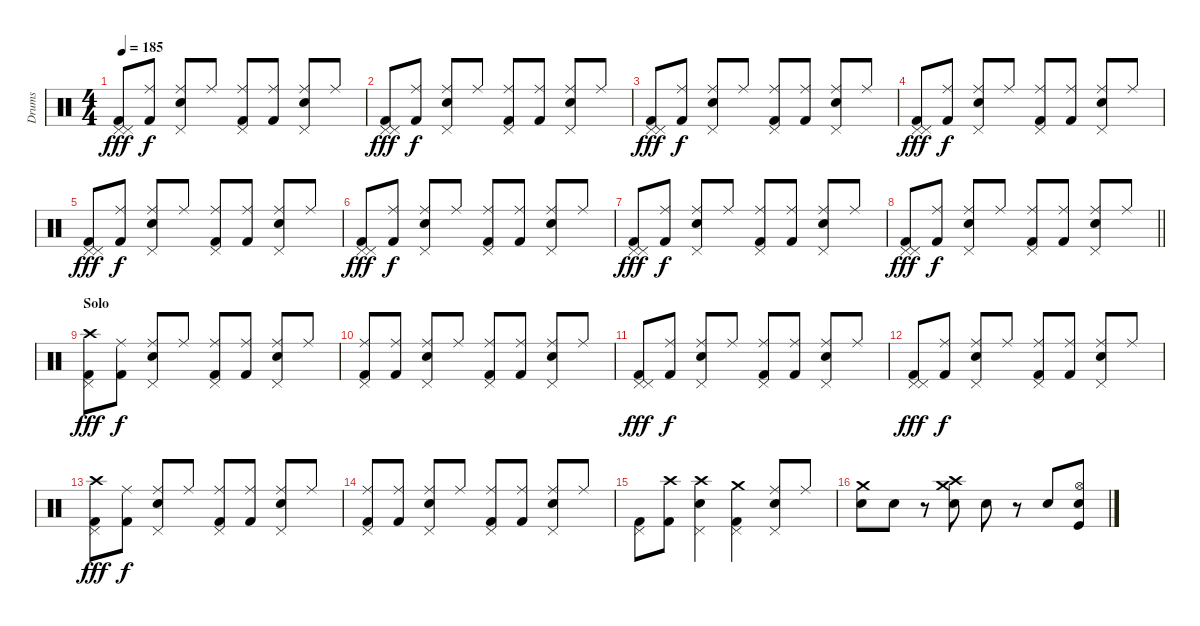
\track ("Drums" "Drums") {instrument percussion}
\staff {score}
\articulation defaults
\ts (4 4)
\tempo 185
\clef neutral
\ks c
("Pedal Hi-Hat (hit)" "Pedal Hi-Hat (hit)" "Kick (hit) 2").8{dy fff} ("Ride (middle)" "Kick (hit) 2").8{dy f} ("Pedal Hi-Hat (hit)" "Ride (middle)" "Snare (hit) 2").8 "Ride (middle)".8 ("Pedal Hi-Hat (hit)" "Ride (middle)" "Kick (hit) 2").8 ("Ride (middle)" "Kick (hit) 2").8 ("Pedal Hi-Hat (hit)" "Ride (middle)" "Snare (hit) 2").8 "Ride (middle)".8 |
("Pedal Hi-Hat (hit)" "Pedal Hi-Hat (hit)" "Kick (hit) 2").8{dy fff} ("Ride (middle)" "Kick (hit) 2").8{dy f} ("Pedal Hi-Hat (hit)" "Ride (middle)" "Snare (hit) 2").8 "Ride (middle)".8 ("Pedal Hi-Hat (hit)" "Ride (middle)" "Kick (hit) 2").8 ("Ride (middle)" "Kick (hit) 2").8 ("Pedal Hi-Hat (hit)" "Ride (middle)" "Snare (hit) 2").8 "Ride (middle)".8 |
("Pedal Hi-Hat (hit)" "Pedal Hi-Hat (hit)" "Kick (hit) 2").8{dy fff} ("Ride (middle)" "Kick (hit) 2").8{dy f} ("Pedal Hi-Hat (hit)" "Ride (middle)" "Snare (hit) 2").8 "Ride (middle)".8 ("Pedal Hi-Hat (hit)" "Ride (middle)" "Kick (hit) 2").8 ("Ride (middle)" "Kick (hit) 2").8 ("Pedal Hi-Hat (hit)" "Ride (middle)" "Snare (hit) 2").8 "Ride (middle)".8 |
("Pedal Hi-Hat (hit)" "Pedal Hi-Hat (hit)" "Kick (hit) 2").8{dy fff} ("Ride (middle)" "Kick (hit) 2").8{dy f} ("Pedal Hi-Hat (hit)" "Ride (middle)" "Snare (hit) 2").8 "Ride (middle)".8 ("Pedal Hi-Hat (hit)" "Ride (middle)" "Kick (hit) 2").8 ("Ride (middle)" "Kick (hit) 2").8 ("Pedal Hi-Hat (hit)" "Ride (middle)" "Snare (hit) 2").8 "Ride (middle)".8 |
("Pedal Hi-Hat (hit)" "Pedal Hi-Hat (hit)" "Kick (hit) 2").8{dy fff} ("Ride (middle)" "Kick (hit) 2").8{dy f} ("Pedal Hi-Hat (hit)" "Ride (middle)" "Snare (hit) 2").8 "Ride (middle)".8 ("Pedal Hi-Hat (hit)" "Ride (middle)" "Kick (hit) 2").8 ("Ride (middle)" "Kick (hit) 2").8 ("Pedal Hi-Hat (hit)" "Ride (middle)" "Snare (hit) 2").8 "Ride (middle)".8 |
("Pedal Hi-Hat (hit)" "Pedal Hi-Hat (hit)" "Kick (hit) 2").8{dy fff} ("Ride (middle)" "Kick (hit) 2").8{dy f} ("Pedal Hi-Hat (hit)" "Ride (middle)" "Snare (hit) 2").8 "Ride (middle)".8 ("Pedal Hi-Hat (hit)" "Ride (middle)" "Kick (hit) 2").8 ("Ride (middle)" "Kick (hit) 2").8 ("Pedal Hi-Hat (hit)" "Ride (middle)" "Snare (hit) 2").8 "Ride (middle)".8 |
("Pedal Hi-Hat (hit)" "Pedal Hi-Hat (hit)" "Kick (hit) 2").8{dy fff} ("Ride (middle)" "Kick (hit) 2").8{dy f} ("Pedal Hi-Hat (hit)" "Ride (middle)" "Snare (hit) 2").8 "Ride (middle)".8 ("Pedal Hi-Hat (hit)" "Ride (middle)" "Kick (hit) 2").8 ("Ride (middle)" "Kick (hit) 2").8 ("Pedal Hi-Hat (hit)" "Ride (middle)" "Snare (hit) 2").8 "Ride (middle)".8 |
\barLineRight lightlight
("Pedal Hi-Hat (hit)" "Pedal Hi-Hat (hit)" "Kick (hit) 2").8{dy fff} ("Ride (middle)" "Kick (hit) 2").8{dy f} ("Pedal Hi-Hat (hit)" "Ride (middle)" "Snare (hit) 2").8 "Ride (middle)".8 ("Pedal Hi-Hat (hit)" "Ride (middle)" "Kick (hit) 2").8 ("Ride (middle)" "Kick (hit) 2").8 ("Pedal Hi-Hat (hit)" "Ride (middle)" "Snare (hit) 2").8 "Ride (middle)".8 |
\section ("" "Solo")
("Crash high (hit)" "Pedal Hi-Hat (hit)" "Kick (hit) 2").8{dy fff} ("Ride (middle)" "Kick (hit) 2").8{dy f} ("Pedal Hi-Hat (hit)" "Ride (middle)" "Snare (hit) 2").8 "Ride (middle)".8 ("Pedal Hi-Hat (hit)" "Ride (middle)" "Kick (hit) 2").8 ("Ride (middle)" "Kick (hit) 2").8 ("Pedal Hi-Hat (hit)" "Ride (middle)" "Snare (hit) 2").8 "Ride (middle)".8 |
("Pedal Hi-Hat (hit)" "Ride (middle)" "Kick (hit) 2").8 ("Ride (middle)" "Kick (hit) 2").8 ("Pedal Hi-Hat (hit)" "Ride (middle)" "Snare (hit) 2").8 "Ride (middle)".8 ("Pedal Hi-Hat (hit)" "Ride (middle)" "Kick (hit) 2").8 ("Ride (middle)" "Kick (hit) 2").8 ("Pedal Hi-Hat (hit)" "Ride (middle)" "Snare (hit) 2").8 "Ride (middle)".8 |
("Pedal Hi-Hat (hit)" "Pedal Hi-Hat (hit)" "Kick (hit) 2").8{dy fff} ("Ride (middle)" "Kick (hit) 2").8{dy f} ("Pedal Hi-Hat (hit)" "Ride (middle)" "Snare (hit) 2").8 "Ride (middle)".8 ("Pedal Hi-Hat (hit)" "Ride (middle)" "Kick (hit) 2").8 ("Ride (middle)" "Kick (hit) 2").8 ("Pedal Hi-Hat (hit)" "Ride (middle)" "Snare (hit) 2").8 "Ride (middle)".8 |
("Pedal Hi-Hat (hit)" "Pedal Hi-Hat (hit)" "Kick (hit) 2").8{dy fff} ("Ride (middle)" "Kick (hit) 2").8{dy f} ("Pedal Hi-Hat (hit)" "Ride (middle)" "Snare (hit) 2").8 "Ride (middle)".8 ("Pedal Hi-Hat (hit)" "Ride (middle)" "Kick (hit) 2").8 ("Ride (middle)" "Kick (hit) 2").8 ("Pedal Hi-Hat (hit)" "Ride (middle)" "Snare (hit) 2").8 "Ride (middle)".8 |
("Crash high (hit)" "Pedal Hi-Hat (hit)" "Kick (hit) 2").8{dy fff} ("Ride (middle)" "Kick (hit) 2").8{dy f} ("Pedal Hi-Hat (hit)" "Ride (middle)" "Snare (hit) 2").8 "Ride (middle)".8 ("Pedal Hi-Hat (hit)" "Ride (middle)" "Kick (hit) 2").8 ("Ride (middle)" "Kick (hit) 2").8 ("Pedal Hi-Hat (hit)" "Ride (middle)" "Snare (hit) 2").8 "Ride (middle)".8 |
("Pedal Hi-Hat (hit)" "Ride (middle)" "Kick (hit) 2").8 ("Ride (middle)" "Kick (hit) 2").8 ("Pedal Hi-Hat (hit)" "Ride (middle)" "Snare (hit) 2").8 "Ride (middle)".8 ("Pedal Hi-Hat (hit)" "Ride (middle)" "Kick (hit) 2").8 ("Ride (middle)" "Kick (hit) 2").8 ("Pedal Hi-Hat (hit)" "Ride (middle)" "Snare (hit) 2").8 "Ride (middle)".8 |
("Pedal Hi-Hat (hit)" "Kick (hit) 2").8 ("Crash high (hit)" "Kick (hit) 2").8 ("Pedal Hi-Hat (hit)" "Crash high (hit)" "Snare (hit) 2").4 ("Pedal Hi-Hat (hit)" "Crash medium (hit)" "Kick (hit) 2").4 ("Pedal Hi-Hat (hit)" "Ride (middle)" "Snare (hit) 2").8 "Ride (middle)".8 |
("Electric Snare (hit)" "Crash medium (hit)").8 "Electric Snare (hit)".8 r.8 ("Crash high (hit)" "Crash medium (hit)" "Electric Snare (hit)").8 "Electric Snare (hit)".8 r.8 "Electric Snare (hit)".8 ("Hi-Hat (open)" "Kick (hit)" "Electric Snare (hit)").8
